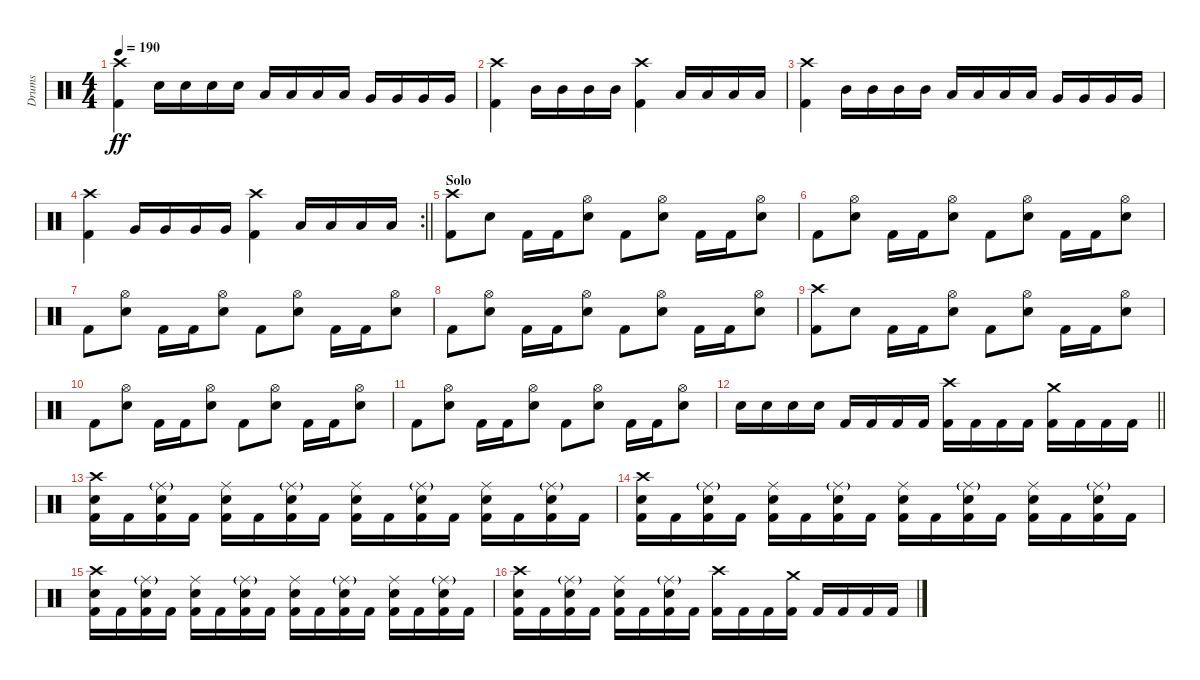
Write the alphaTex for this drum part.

\track ("Drums" "Drums") {instrument percussion}
\staff {score}
\articulation defaults
\ts (4 4)
\tempo 190
\clef neutral
\ks c
("Crash high (hit)" "Kick (hit) 2").4{dy ff} "Electric Snare (hit)".16 "Electric Snare (hit)".16 "Electric Snare (hit)".16 "Electric Snare (hit)".16 "Low Tom (hit)".16 "Low Tom (hit)".16 "Low Tom (hit)".16 "Low Tom (hit)".16 "Very Low Tom (hit)".16 "Very Low Tom (hit)".16 "Very Low Tom (hit)".16 "Very Low Tom (hit)".16 |
("Crash high (hit)" "Kick (hit) 2").4 "Mid Tom (hit)".16 "Mid Tom (hit)".16 "Mid Tom (hit)".16 "Mid Tom (hit)".16 ("Crash high (hit)" "Kick (hit) 2").4 "Low Tom (hit)".16 "Low Tom (hit)".16 "Low Tom (hit)".16 "Low Tom (hit)".16 |
("Crash high (hit)" "Kick (hit) 2").4 "Mid Tom (hit)".16 "Mid Tom (hit)".16 "Mid Tom (hit)".16 "Mid Tom (hit)".16 "Low Tom (hit)".16 "Low Tom (hit)".16 "Low Tom (hit)".16 "Low Tom (hit)".16 "Very Low Tom (hit)".16 "Very Low Tom (hit)".16 "Very Low Tom (hit)".16 "Very Low Tom (hit)".16 |
\rc 2
\barLineRight lightlight
("Crash high (hit)" "Kick (hit) 2").4 "Very Low Tom (hit)".16 "Very Low Tom (hit)".16 "Very Low Tom (hit)".16 "Very Low Tom (hit)".16 ("Crash high (hit)" "Kick (hit) 2").4 "Low Floor Tom (hit)".16 "Low Floor Tom (hit)".16 "Low Floor Tom (hit)".16 "Low Floor Tom (hit)".16 |
\section ("" "Solo")
("Crash high (hit)" "Kick (hit) 2").8 "Electric Snare (hit)".8 "Kick (hit) 2".16 "Kick (hit) 2".16 ("Hi-Hat (open)" "Electric Snare (hit)").8 "Kick (hit) 2".8 ("Hi-Hat (open)" "Electric Snare (hit)").8 "Kick (hit) 2".16 "Kick (hit) 2".16 ("Hi-Hat (open)" "Electric Snare (hit)").8 |
"Kick (hit) 2".8 ("Hi-Hat (open)" "Electric Snare (hit)").8 "Kick (hit) 2".16 "Kick (hit) 2".16 ("Hi-Hat (open)" "Electric Snare (hit)").8 "Kick (hit) 2".8 ("Hi-Hat (open)" "Electric Snare (hit)").8 "Kick (hit) 2".16 "Kick (hit) 2".16 ("Hi-Hat (open)" "Electric Snare (hit)").8 |
"Kick (hit) 2".8 ("Hi-Hat (open)" "Electric Snare (hit)").8 "Kick (hit) 2".16 "Kick (hit) 2".16 ("Hi-Hat (open)" "Electric Snare (hit)").8 "Kick (hit) 2".8 ("Hi-Hat (open)" "Electric Snare (hit)").8 "Kick (hit) 2".16 "Kick (hit) 2".16 ("Hi-Hat (open)" "Electric Snare (hit)").8 |
"Kick (hit) 2".8 ("Hi-Hat (open)" "Electric Snare (hit)").8 "Kick (hit) 2".16 "Kick (hit) 2".16 ("Hi-Hat (open)" "Electric Snare (hit)").8 "Kick (hit) 2".8 ("Hi-Hat (open)" "Electric Snare (hit)").8 "Kick (hit) 2".16 "Kick (hit) 2".16 ("Hi-Hat (open)" "Electric Snare (hit)").8 |
("Crash high (hit)" "Kick (hit) 2").8 "Electric Snare (hit)".8 "Kick (hit) 2".16 "Kick (hit) 2".16 ("Hi-Hat (open)" "Electric Snare (hit)").8 "Kick (hit) 2".8 ("Hi-Hat (open)" "Electric Snare (hit)").8 "Kick (hit) 2".16 "Kick (hit) 2".16 ("Hi-Hat (open)" "Electric Snare (hit)").8 |
"Kick (hit) 2".8 ("Hi-Hat (open)" "Electric Snare (hit)").8 "Kick (hit) 2".16 "Kick (hit) 2".16 ("Hi-Hat (open)" "Electric Snare (hit)").8 "Kick (hit) 2".8 ("Hi-Hat (open)" "Electric Snare (hit)").8 "Kick (hit) 2".16 "Kick (hit) 2".16 ("Hi-Hat (open)" "Electric Snare (hit)").8 |
"Kick (hit) 2".8 ("Hi-Hat (open)" "Electric Snare (hit)").8 "Kick (hit) 2".16 "Kick (hit) 2".16 ("Hi-Hat (open)" "Electric Snare (hit)").8 "Kick (hit) 2".8 ("Hi-Hat (open)" "Electric Snare (hit)").8 "Kick (hit) 2".16 "Kick (hit) 2".16 ("Hi-Hat (open)" "Electric Snare (hit)").8 |
\barLineRight lightlight "Electric Snare (hit)".16 "Electric Snare (hit)".16 "Electric Snare (hit)".16 "Electric Snare (hit)".16 "Kick (hit) 2".16 "Kick (hit) 2".16 "Kick (hit) 2".16 "Kick (hit) 2".16
("Crash high (hit)" "Kick (hit) 2").16 "Kick (hit) 2".16 "Kick (hit) 2".16 "Kick (hit) 2".16 ("Crash medium (hit)" "Kick (hit) 2").16 "Kick (hit) 2".16 "Kick (hit) 2".16 "Kick (hit) 2".16 |
("Crash high (hit)" "Electric Snare (hit)" "Kick (hit) 2").16 "Kick (hit) 2".16 ("Ride (middle)"{g} "Electric Snare (hit)" "Kick (hit) 2").16 "Kick (hit) 2".16 ("Ride (middle)" "Electric Snare (hit)" "Kick (hit) 2").16 "Kick (hit) 2".16 ("Ride (middle)"{g} "Electric Snare (hit)" "Kick (hit) 2").16 "Kick (hit) 2".16 ("Ride (middle)" "Electric Snare (hit)" "Kick (hit) 2").16 "Kick (hit) 2".16 ("Ride (middle)"{g} "Electric Snare (hit)" "Kick (hit) 2").16 "Kick (hit) 2".16 ("Ride (middle)" "Electric Snare (hit)" "Kick (hit) 2").16 "Kick (hit) 2".16 ("Ride (middle)"{g} "Electric Snare (hit)" "Kick (hit) 2").16 "Kick (hit) 2".16 |
("Crash high (hit)" "Electric Snare (hit)" "Kick (hit) 2").16 "Kick (hit) 2".16 ("Ride (middle)"{g} "Electric Snare (hit)" "Kick (hit) 2").16 "Kick (hit) 2".16 ("Ride (middle)" "Electric Snare (hit)" "Kick (hit) 2").16 "Kick (hit) 2".16 ("Ride (middle)"{g} "Electric Snare (hit)" "Kick (hit) 2").16 "Kick (hit) 2".16 ("Ride (middle)" "Electric Snare (hit)" "Kick (hit) 2").16 "Kick (hit) 2".16 ("Ride (middle)"{g} "Electric Snare (hit)" "Kick (hit) 2").16 "Kick (hit) 2".16 ("Ride (middle)" "Electric Snare (hit)" "Kick (hit) 2").16 "Kick (hit) 2".16 ("Ride (middle)"{g} "Electric Snare (hit)" "Kick (hit) 2").16 "Kick (hit) 2".16 |
("Crash high (hit)" "Electric Snare (hit)" "Kick (hit) 2").16 "Kick (hit) 2".16 ("Ride (middle)"{g} "Electric Snare (hit)" "Kick (hit) 2").16 "Kick (hit) 2".16 ("Ride (middle)" "Electric Snare (hit)" "Kick (hit) 2").16 "Kick (hit) 2".16 ("Ride (middle)"{g} "Electric Snare (hit)" "Kick (hit) 2").16 "Kick (hit) 2".16 ("Ride (middle)" "Electric Snare (hit)" "Kick (hit) 2").16 "Kick (hit) 2".16 ("Ride (middle)"{g} "Electric Snare (hit)" "Kick (hit) 2").16 "Kick (hit) 2".16 ("Ride (middle)" "Electric Snare (hit)" "Kick (hit) 2").16 "Kick (hit) 2".16 ("Ride (middle)"{g} "Electric Snare (hit)" "Kick (hit) 2").16 "Kick (hit) 2".16 |
("Crash high (hit)" "Electric Snare (hit)" "Kick (hit) 2").16 "Kick (hit) 2".16 ("Ride (middle)"{g} "Electric Snare (hit)" "Kick (hit) 2").16 "Kick (hit) 2".16 ("Ride (middle)" "Electric Snare (hit)" "Kick (hit) 2").16 "Kick (hit) 2".16 ("Ride (middle)"{g} "Electric Snare (hit)" "Kick (hit) 2").16 "Kick (hit) 2".16 ("Crash high (hit)" "Kick (hit) 2").16 "Kick (hit) 2".16 "Kick (hit) 2".16 ("Crash medium (hit)" "Kick (hit) 2").16 "Kick (hit) 2".16 "Kick (hit) 2".16 "Kick (hit) 2".16 "Kick (hit) 2".16
